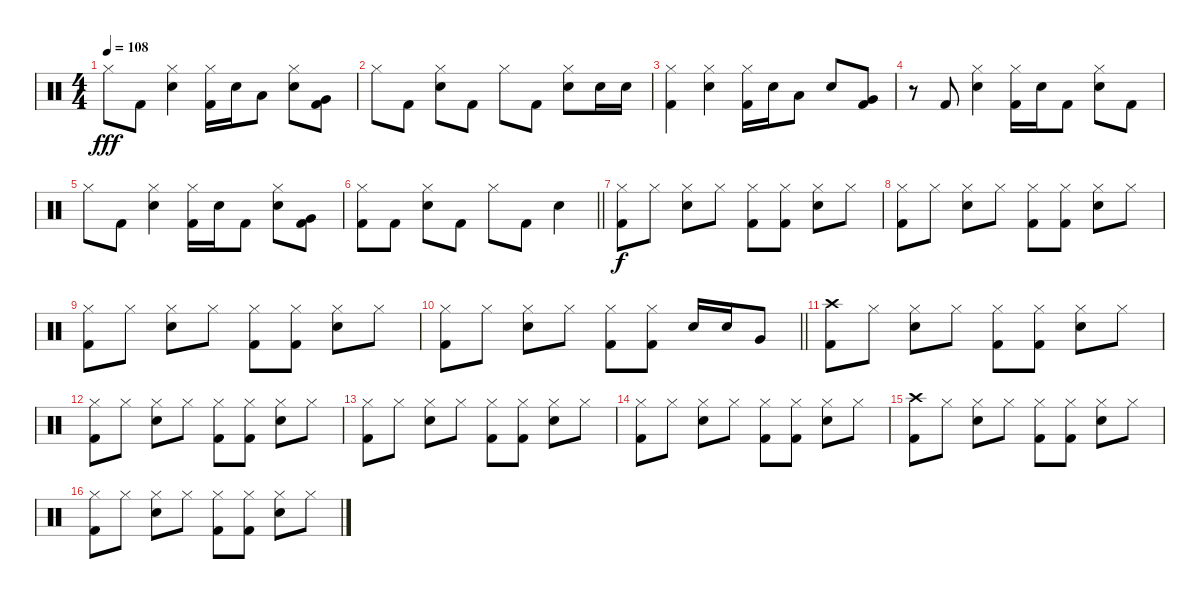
\track "" {instrument percussion}
\staff {score}
\articulation defaults
\ts (4 4)
\tempo 108
\clef neutral
\ks c "Hi-Hat (closed)".8{dy fff} "Kick (hit) 2".8
("Electric Snare (hit)" "Hi-Hat (closed)").4 ("Kick (hit) 2" "Hi-Hat (closed)").16 "Electric Snare (hit)".16 "Low Floor Tom (hit)".8 ("Electric Snare (hit)" "Hi-Hat (closed)").8 ("Very Low Tom (hit)" "Kick (hit) 2").8 |
"Hi-Hat (closed)".8 "Kick (hit) 2".8 ("Electric Snare (hit)" "Hi-Hat (closed)").8 "Kick (hit) 2".8 "Hi-Hat (closed)".8 "Kick (hit) 2".8 ("Electric Snare (hit)" "Hi-Hat (closed)").8 "Electric Snare (hit)".16 "Electric Snare (hit)".16 |
("Hi-Hat (closed)" "Kick (hit) 2").4 ("Hi-Hat (closed)" "Electric Snare (hit)").4 ("Kick (hit) 2" "Hi-Hat (closed)").16 "Electric Snare (hit)".16 "Low Floor Tom (hit)".8 "Electric Snare (hit)".8 ("Very Low Tom (hit)" "Kick (hit) 2").8 |
r.8 "Kick (hit) 2".8 ("Electric Snare (hit)" "Hi-Hat (closed)").4 ("Kick (hit) 2" "Hi-Hat (closed)").16 "Electric Snare (hit)".16 "Kick (hit) 2".8 ("Hi-Hat (closed)" "Electric Snare (hit)").8 "Kick (hit) 2".8 |
"Hi-Hat (closed)".8 "Kick (hit) 2".8 ("Electric Snare (hit)" "Hi-Hat (closed)").4 ("Kick (hit) 2" "Hi-Hat (closed)").16 "Electric Snare (hit)".16 "Kick (hit) 2".8 ("Electric Snare (hit)" "Hi-Hat (closed)").8 ("Very Low Tom (hit)" "Kick (hit) 2").8 |
\barLineRight lightlight
("Kick (hit) 2" "Hi-Hat (closed)").8 "Kick (hit) 2".8 ("Electric Snare (hit)" "Hi-Hat (closed)").8 "Kick (hit) 2".8 "Hi-Hat (closed)".8 "Kick (hit) 2".8 "Electric Snare (hit)".4 |
\section ("" "")
("Kick (hit) 2" "Hi-Hat (closed)").8{dy f} "Hi-Hat (closed)".8 ("Electric Snare (hit)" "Hi-Hat (closed)").8 "Hi-Hat (closed)".8 ("Kick (hit) 2" "Hi-Hat (closed)").8 ("Hi-Hat (closed)" "Kick (hit) 2").8 ("Electric Snare (hit)" "Hi-Hat (closed)").8 "Hi-Hat (closed)".8 |
("Kick (hit) 2" "Hi-Hat (closed)").8 "Hi-Hat (closed)".8 ("Electric Snare (hit)" "Hi-Hat (closed)").8 "Hi-Hat (closed)".8 ("Kick (hit) 2" "Hi-Hat (closed)").8 ("Hi-Hat (closed)" "Kick (hit) 2").8 ("Electric Snare (hit)" "Hi-Hat (closed)").8 "Hi-Hat (closed)".8 |
("Kick (hit) 2" "Hi-Hat (closed)").8 "Hi-Hat (closed)".8 ("Electric Snare (hit)" "Hi-Hat (closed)").8 "Hi-Hat (closed)".8 ("Kick (hit) 2" "Hi-Hat (closed)").8 ("Hi-Hat (closed)" "Kick (hit) 2").8 ("Electric Snare (hit)" "Hi-Hat (closed)").8 "Hi-Hat (closed)".8 |
\barLineRight lightlight
("Kick (hit) 2" "Hi-Hat (closed)").8 "Hi-Hat (closed)".8 ("Electric Snare (hit)" "Hi-Hat (closed)").8 "Hi-Hat (closed)".8 ("Kick (hit) 2" "Hi-Hat (closed)").8 ("Hi-Hat (closed)" "Kick (hit) 2").8 "Electric Snare (hit)".16 "Electric Snare (hit)".16 "Very Low Tom (hit)".8 |
\section ("" "")
("Crash high (hit)" "Kick (hit) 2").8 "Hi-Hat (closed)".8 ("Electric Snare (hit)" "Hi-Hat (closed)").8 "Hi-Hat (closed)".8 ("Kick (hit) 2" "Hi-Hat (closed)").8 ("Hi-Hat (closed)" "Kick (hit) 2").8 ("Electric Snare (hit)" "Hi-Hat (closed)").8 "Hi-Hat (closed)".8 |
("Kick (hit) 2" "Hi-Hat (closed)").8 "Hi-Hat (closed)".8 ("Electric Snare (hit)" "Hi-Hat (closed)").8 "Hi-Hat (closed)".8 ("Kick (hit) 2" "Hi-Hat (closed)").8 ("Hi-Hat (closed)" "Kick (hit) 2").8 ("Electric Snare (hit)" "Hi-Hat (closed)").8 "Hi-Hat (closed)".8 |
("Kick (hit) 2" "Hi-Hat (closed)").8 "Hi-Hat (closed)".8 ("Electric Snare (hit)" "Hi-Hat (closed)").8 "Hi-Hat (closed)".8 ("Kick (hit) 2" "Hi-Hat (closed)").8 ("Hi-Hat (closed)" "Kick (hit) 2").8 ("Electric Snare (hit)" "Hi-Hat (closed)").8 "Hi-Hat (closed)".8 |
("Kick (hit) 2" "Hi-Hat (closed)").8 "Hi-Hat (closed)".8 ("Electric Snare (hit)" "Hi-Hat (closed)").8 "Hi-Hat (closed)".8 ("Kick (hit) 2" "Hi-Hat (closed)").8 ("Hi-Hat (closed)" "Kick (hit) 2").8 ("Electric Snare (hit)" "Hi-Hat (closed)").8 "Hi-Hat (closed)".8 |
("Crash high (hit)" "Kick (hit) 2").8 "Hi-Hat (closed)".8 ("Electric Snare (hit)" "Hi-Hat (closed)").8 "Hi-Hat (closed)".8 ("Kick (hit) 2" "Hi-Hat (closed)").8 ("Hi-Hat (closed)" "Kick (hit) 2").8 ("Electric Snare (hit)" "Hi-Hat (closed)").8 "Hi-Hat (closed)".8 |
("Kick (hit) 2" "Hi-Hat (closed)").8 "Hi-Hat (closed)".8 ("Electric Snare (hit)" "Hi-Hat (closed)").8 "Hi-Hat (closed)".8 ("Kick (hit) 2" "Hi-Hat (closed)").8 ("Hi-Hat (closed)" "Kick (hit) 2").8 ("Electric Snare (hit)" "Hi-Hat (closed)").8 "Hi-Hat (closed)".8
